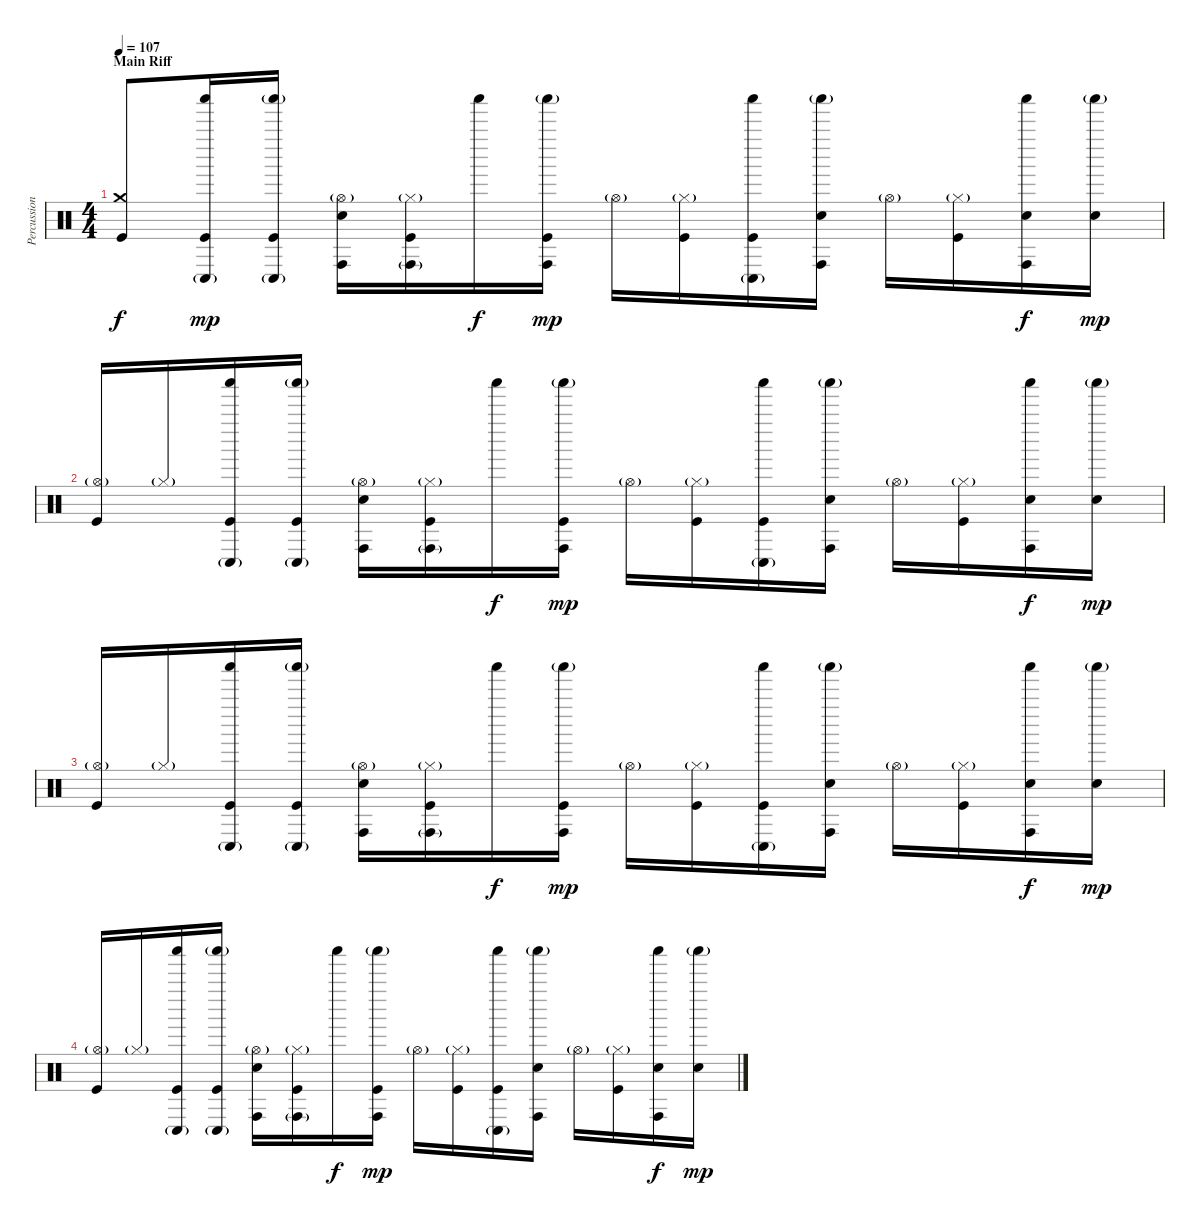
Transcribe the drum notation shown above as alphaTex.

\track ("Percussion" "Percussion") {instrument percussion}
\staff {score}
\articulation defaults
\ts (4 4)
\section ("" "Main Riff")
\tempo 107
\clef neutral
\ks c
("Crash medium (hit)" "Kick (hit)").8{dy f} ("Shaker (hit)" "Conga low (hit)"{g} "Kick (hit)").16{dy mp} ("Shaker (hit)"{g} "Conga low (hit)"{g} "Kick (hit)").16 ("Hi-Hat (open)"{g} "Snare (hit) 2" "Conga high (hit)").16 ("Hi-Hat (closed)"{g} "Conga high (hit)"{g} "Kick (hit)").16 "Shaker (hit)".16{dy f} ("Shaker (hit)"{g} "Conga high (hit)" "Kick (hit)").16{dy mp} "Hi-Hat (open)"{g}.16 ("Hi-Hat (closed)"{g} "Kick (hit)").16 ("Shaker (hit)" "Conga low (hit)"{g} "Kick (hit)").16 ("Shaker (hit)"{g} "Snare (hit) 2" "Conga high (hit)").16 "Hi-Hat (open)"{g}.16 ("Hi-Hat (closed)"{g} "Kick (hit)").16 ("Shaker (hit)" "Snare (hit) 2" "Conga high (hit)").16{dy f} ("Shaker (hit)"{g} "Snare (hit) 2").16{dy mp} |
("Hi-Hat (open)"{g} "Kick (hit)").16 "Hi-Hat (closed)"{g}.16 ("Shaker (hit)" "Conga low (hit)"{g} "Kick (hit)").16 ("Shaker (hit)"{g} "Conga low (hit)"{g} "Kick (hit)").16 ("Hi-Hat (open)"{g} "Snare (hit) 2" "Conga high (hit)").16 ("Hi-Hat (closed)"{g} "Conga high (hit)"{g} "Kick (hit)").16 "Shaker (hit)".16{dy f} ("Shaker (hit)"{g} "Conga high (hit)" "Kick (hit)").16{dy mp} "Hi-Hat (open)"{g}.16 ("Hi-Hat (closed)"{g} "Kick (hit)").16 ("Shaker (hit)" "Conga low (hit)"{g} "Kick (hit)").16 ("Shaker (hit)"{g} "Snare (hit) 2" "Conga high (hit)").16 "Hi-Hat (open)"{g}.16 ("Hi-Hat (closed)"{g} "Kick (hit)").16 ("Shaker (hit)" "Snare (hit) 2" "Conga high (hit)").16{dy f} ("Shaker (hit)"{g} "Snare (hit) 2").16{dy mp} |
("Hi-Hat (open)"{g} "Kick (hit)").16 "Hi-Hat (closed)"{g}.16 ("Shaker (hit)" "Conga low (hit)"{g} "Kick (hit)").16 ("Shaker (hit)"{g} "Conga low (hit)"{g} "Kick (hit)").16 ("Hi-Hat (open)"{g} "Snare (hit) 2" "Conga high (hit)").16 ("Hi-Hat (closed)"{g} "Conga high (hit)"{g} "Kick (hit)").16 "Shaker (hit)".16{dy f} ("Shaker (hit)"{g} "Conga high (hit)" "Kick (hit)").16{dy mp} "Hi-Hat (open)"{g}.16 ("Hi-Hat (closed)"{g} "Kick (hit)").16 ("Shaker (hit)" "Conga low (hit)"{g} "Kick (hit)").16 ("Shaker (hit)"{g} "Snare (hit) 2" "Conga high (hit)").16 "Hi-Hat (open)"{g}.16 ("Hi-Hat (closed)"{g} "Kick (hit)").16 ("Shaker (hit)" "Snare (hit) 2" "Conga high (hit)").16{dy f} ("Shaker (hit)"{g} "Snare (hit) 2").16{dy mp} |
("Hi-Hat (open)"{g} "Kick (hit)").16 "Hi-Hat (closed)"{g}.16 ("Shaker (hit)" "Conga low (hit)"{g} "Kick (hit)").16 ("Shaker (hit)"{g} "Conga low (hit)"{g} "Kick (hit)").16 ("Hi-Hat (open)"{g} "Snare (hit) 2" "Conga high (hit)").16 ("Hi-Hat (closed)"{g} "Conga high (hit)"{g} "Kick (hit)").16 "Shaker (hit)".16{dy f} ("Shaker (hit)"{g} "Conga high (hit)" "Kick (hit)").16{dy mp} "Hi-Hat (open)"{g}.16 ("Hi-Hat (closed)"{g} "Kick (hit)").16 ("Shaker (hit)" "Conga low (hit)"{g} "Kick (hit)").16 ("Shaker (hit)"{g} "Snare (hit) 2" "Conga high (hit)").16 "Hi-Hat (open)"{g}.16 ("Hi-Hat (closed)"{g} "Kick (hit)").16 ("Shaker (hit)" "Snare (hit) 2" "Conga high (hit)").16{dy f} ("Shaker (hit)"{g} "Snare (hit) 2").16{dy mp}
